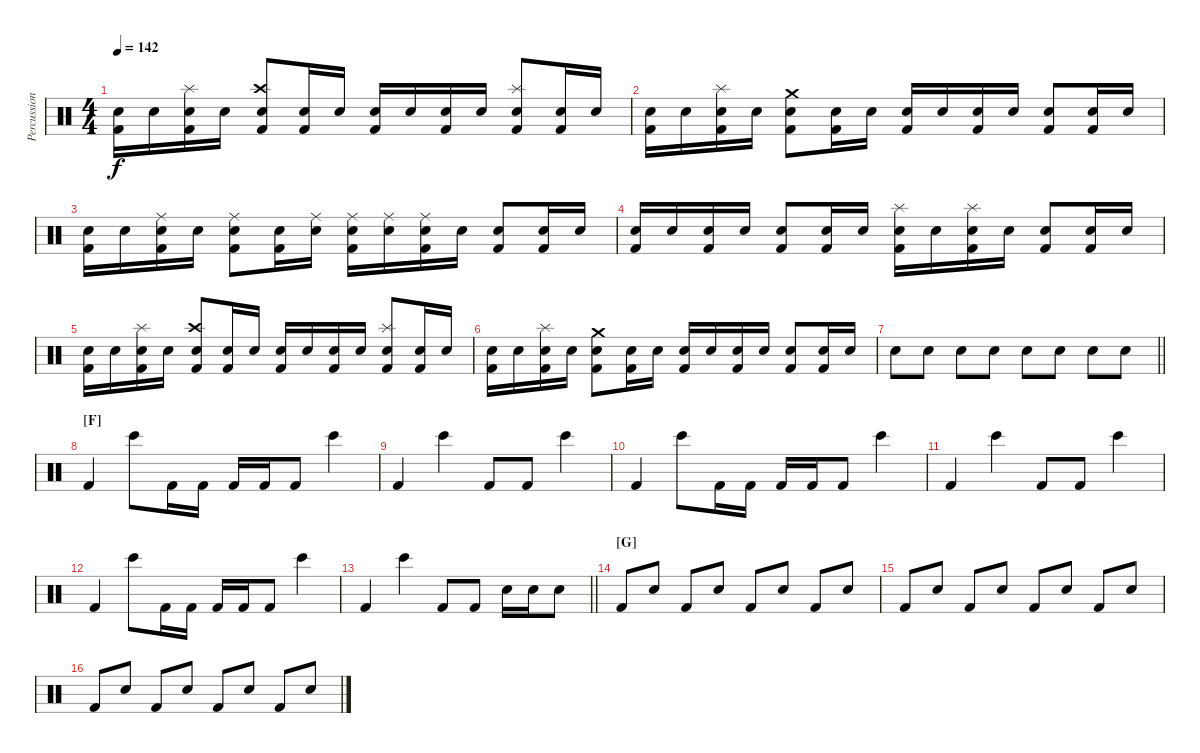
\track ("Percussions" "Percussion") {instrument percussion}
\staff {score}
\articulation defaults
\ts (4 4)
\tempo 142
\clef neutral
\ks c
("Electric Snare (hit)" "Kick (hit) 2").16{dy f} "Electric Snare (hit)".16 ("Splash (hit)" "Electric Snare (hit)" "Kick (hit) 2").16 "Electric Snare (hit)".16 ("Crash high (hit)" "Snare (hit) 2" "Kick (hit) 2").8 ("Electric Snare (hit)" "Kick (hit) 2").16 "Electric Snare (hit)".16 ("Electric Snare (hit)" "Kick (hit) 2").16 "Electric Snare (hit)".16 ("Electric Snare (hit)" "Kick (hit) 2").16 "Electric Snare (hit)".16 ("Splash (hit)" "Snare (hit) 2" "Kick (hit) 2").8 ("Electric Snare (hit)" "Kick (hit) 2").16 "Electric Snare (hit)".16 |
("Electric Snare (hit)" "Kick (hit) 2").16 "Electric Snare (hit)".16 ("Splash (hit)" "Electric Snare (hit)" "Kick (hit) 2").16 "Electric Snare (hit)".16 ("Crash medium (hit)" "Snare (hit) 2" "Kick (hit) 2").8 ("Electric Snare (hit)" "Kick (hit) 2").16 "Electric Snare (hit)".16 ("Electric Snare (hit)" "Kick (hit) 2").16 "Electric Snare (hit)".16 ("Electric Snare (hit)" "Kick (hit) 2").16 "Electric Snare (hit)".16 ("Snare (hit) 2" "Kick (hit) 2").8 ("Electric Snare (hit)" "Kick (hit) 2").16 "Electric Snare (hit)".16 |
("Electric Snare (hit)" "Kick (hit) 2").16 "Electric Snare (hit)".16 ("Ride (middle)" "Electric Snare (hit)" "Kick (hit) 2").16 "Electric Snare (hit)".16 ("Ride (middle)" "Snare (hit) 2" "Kick (hit) 2").8 ("Electric Snare (hit)" "Kick (hit) 2").16 ("Ride (middle)" "Electric Snare (hit)").16 ("Ride (middle)" "Electric Snare (hit)" "Kick (hit) 2").16 ("Ride (middle)" "Electric Snare (hit)").16 ("Ride (middle)" "Electric Snare (hit)" "Kick (hit) 2").16 "Electric Snare (hit)".16 ("Snare (hit) 2" "Kick (hit) 2").8 ("Electric Snare (hit)" "Kick (hit) 2").16 "Electric Snare (hit)".16 |
("Electric Snare (hit)" "Kick (hit) 2").16 "Electric Snare (hit)".16 ("Electric Snare (hit)" "Kick (hit) 2").16 "Electric Snare (hit)".16 ("Snare (hit) 2" "Kick (hit) 2").8 ("Electric Snare (hit)" "Kick (hit) 2").16 "Electric Snare (hit)".16 ("Splash (hit)" "Electric Snare (hit)" "Kick (hit) 2").16 "Electric Snare (hit)".16 ("Splash (hit)" "Electric Snare (hit)" "Kick (hit) 2").16 "Electric Snare (hit)".16 ("Snare (hit) 2" "Kick (hit) 2").8 ("Electric Snare (hit)" "Kick (hit) 2").16 "Electric Snare (hit)".16 |
("Electric Snare (hit)" "Kick (hit) 2").16 "Electric Snare (hit)".16 ("Splash (hit)" "Electric Snare (hit)" "Kick (hit) 2").16 "Electric Snare (hit)".16 ("Crash high (hit)" "Snare (hit) 2" "Kick (hit) 2").8 ("Electric Snare (hit)" "Kick (hit) 2").16 "Electric Snare (hit)".16 ("Electric Snare (hit)" "Kick (hit) 2").16 "Electric Snare (hit)".16 ("Electric Snare (hit)" "Kick (hit) 2").16 "Electric Snare (hit)".16 ("Splash (hit)" "Snare (hit) 2" "Kick (hit) 2").8 ("Electric Snare (hit)" "Kick (hit) 2").16 "Electric Snare (hit)".16 |
("Electric Snare (hit)" "Kick (hit) 2").16 "Electric Snare (hit)".16 ("Splash (hit)" "Electric Snare (hit)" "Kick (hit) 2").16 "Electric Snare (hit)".16 ("Crash medium (hit)" "Snare (hit) 2" "Kick (hit) 2").8 ("Electric Snare (hit)" "Kick (hit) 2").16 "Electric Snare (hit)".16 ("Electric Snare (hit)" "Kick (hit) 2").16 "Electric Snare (hit)".16 ("Electric Snare (hit)" "Kick (hit) 2").16 "Electric Snare (hit)".16 ("Snare (hit) 2" "Kick (hit) 2").8 ("Electric Snare (hit)" "Kick (hit) 2").16 "Electric Snare (hit)".16 |
\barLineRight lightlight "Electric Snare (hit)".8 "Electric Snare (hit)".8 "Electric Snare (hit)".8 "Electric Snare (hit)".8 "Electric Snare (hit)".8 "Electric Snare (hit)".8 "Electric Snare (hit)".8 "Electric Snare (hit)".8
|
\section ("" "[F]")
"Kick (hit) 2".4 "Bongo High (hit)".8 "Kick (hit) 2".16 "Kick (hit) 2".16 "Kick (hit) 2".16 "Kick (hit) 2".16 "Kick (hit) 2".8 "Bongo High (hit)".4 |
"Kick (hit) 2".4 "Bongo High (hit)".4 "Kick (hit) 2".8 "Kick (hit) 2".8 "Bongo High (hit)".4 |
"Kick (hit) 2".4 "Bongo High (hit)".8 "Kick (hit) 2".16 "Kick (hit) 2".16 "Kick (hit) 2".16 "Kick (hit) 2".16 "Kick (hit) 2".8 "Bongo High (hit)".4 |
"Kick (hit) 2".4 "Bongo High (hit)".4 "Kick (hit) 2".8 "Kick (hit) 2".8 "Bongo High (hit)".4 |
"Kick (hit) 2".4 "Bongo High (hit)".8 "Kick (hit) 2".16 "Kick (hit) 2".16 "Kick (hit) 2".16 "Kick (hit) 2".16 "Kick (hit) 2".8 "Bongo High (hit)".4 |
\barLineRight lightlight "Kick (hit) 2".4 "Bongo High (hit)".4 "Kick (hit) 2".8 "Kick (hit) 2".8 "Electric Snare (hit)".16 "Electric Snare (hit)".16 "Electric Snare (hit)".8
|
\section ("" "[G]")
"Kick (hit) 2".8 "Electric Snare (hit)".8 "Kick (hit) 2".8 "Electric Snare (hit)".8 "Kick (hit) 2".8 "Electric Snare (hit)".8 "Kick (hit) 2".8 "Electric Snare (hit)".8 |
"Kick (hit) 2".8 "Electric Snare (hit)".8 "Kick (hit) 2".8 "Electric Snare (hit)".8 "Kick (hit) 2".8 "Electric Snare (hit)".8 "Kick (hit) 2".8 "Electric Snare (hit)".8 |
"Kick (hit) 2".8 "Electric Snare (hit)".8 "Kick (hit) 2".8 "Electric Snare (hit)".8 "Kick (hit) 2".8 "Electric Snare (hit)".8 "Kick (hit) 2".8 "Electric Snare (hit)".8
